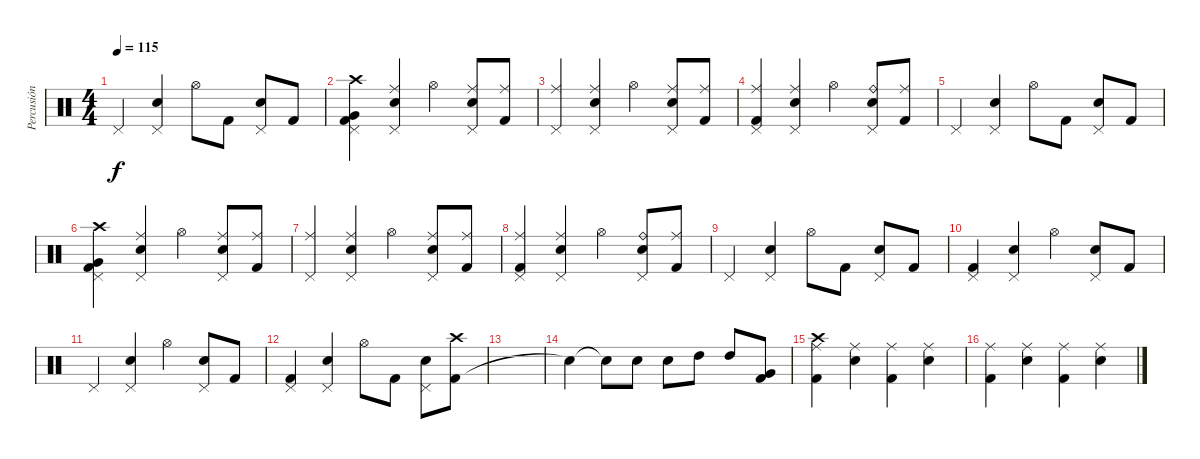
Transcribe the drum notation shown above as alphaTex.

\track ("Percusión" "Percusión") {instrument percussion}
\staff {score}
\articulation defaults
\ts (4 4)
\tempo 115
\clef neutral
\ks c "Pedal Hi-Hat (hit)".4{dy f}
("Snare (hit) 2" "Pedal Hi-Hat (hit)").4 "Hi-Hat (open)".8 "Kick (hit) 2".8 ("Snare (hit) 2" "Pedal Hi-Hat (hit)").8 "Kick (hit) 2".8 |
("Kick (hit) 2" "Very Low Tom (hit)" "Pedal Hi-Hat (hit)" "Crash high (hit)").4 ("Snare (hit) 2" "Pedal Hi-Hat (hit)" "Ride (middle)").4 "Hi-Hat (open)".4 ("Snare (hit) 2" "Pedal Hi-Hat (hit)" "Ride (middle)").8 ("Kick (hit) 2" "Ride (middle)").8 |
("Pedal Hi-Hat (hit)" "Ride (middle)").4 ("Snare (hit) 2" "Pedal Hi-Hat (hit)" "Ride (middle)").4 "Hi-Hat (open)".4 ("Snare (hit) 2" "Pedal Hi-Hat (hit)" "Ride (middle)").8 ("Kick (hit) 2" "Ride (middle)").8 |
("Kick (hit) 2" "Pedal Hi-Hat (hit)" "Ride (middle)").4 ("Snare (hit) 2" "Pedal Hi-Hat (hit)" "Ride (middle)").4 "Hi-Hat (open)".4 ("Snare (hit) 2" "Pedal Hi-Hat (hit)" "Ride (bell)").8 ("Kick (hit) 2" "Ride (middle)").8 |
"Pedal Hi-Hat (hit)".4 ("Snare (hit) 2" "Pedal Hi-Hat (hit)").4 "Hi-Hat (open)".8 "Kick (hit) 2".8 ("Snare (hit) 2" "Pedal Hi-Hat (hit)").8 "Kick (hit) 2".8 |
("Kick (hit) 2" "Very Low Tom (hit)" "Pedal Hi-Hat (hit)" "Crash high (hit)").4 ("Snare (hit) 2" "Pedal Hi-Hat (hit)" "Ride (middle)").4 "Hi-Hat (open)".4 ("Snare (hit) 2" "Pedal Hi-Hat (hit)" "Ride (middle)").8 ("Kick (hit) 2" "Ride (middle)").8 |
("Pedal Hi-Hat (hit)" "Ride (middle)").4 ("Snare (hit) 2" "Pedal Hi-Hat (hit)" "Ride (middle)").4 "Hi-Hat (open)".4 ("Snare (hit) 2" "Pedal Hi-Hat (hit)" "Ride (middle)").8 ("Kick (hit) 2" "Ride (middle)").8 |
("Kick (hit) 2" "Pedal Hi-Hat (hit)" "Ride (middle)").4 ("Snare (hit) 2" "Pedal Hi-Hat (hit)" "Ride (middle)").4 "Hi-Hat (open)".4 ("Snare (hit) 2" "Pedal Hi-Hat (hit)" "Ride (bell)").8 ("Kick (hit) 2" "Ride (middle)").8 |
"Pedal Hi-Hat (hit)".4 ("Snare (hit) 2" "Pedal Hi-Hat (hit)").4 "Hi-Hat (open)".8 "Kick (hit) 2".8 ("Snare (hit) 2" "Pedal Hi-Hat (hit)").8 "Kick (hit) 2".8 |
("Kick (hit) 2" "Pedal Hi-Hat (hit)").4 ("Snare (hit) 2" "Pedal Hi-Hat (hit)").4 "Hi-Hat (open)".4 ("Snare (hit) 2" "Pedal Hi-Hat (hit)").8 "Kick (hit) 2".8 |
"Pedal Hi-Hat (hit)".4 ("Snare (hit) 2" "Pedal Hi-Hat (hit)").4 "Hi-Hat (open)".4 ("Snare (hit) 2" "Pedal Hi-Hat (hit)").8 "Kick (hit) 2".8 |
("Kick (hit) 2" "Pedal Hi-Hat (hit)").4 ("Snare (hit) 2" "Pedal Hi-Hat (hit)").4 "Hi-Hat (open)".8 "Kick (hit) 2".8 ("Snare (hit) 2" "Pedal Hi-Hat (hit)").8 ("Kick (hit) 2" "Crash high (hit)").8 |
|
"Snare (hit)"{t}.4 "Snare (hit)"{t}.8 "Snare (hit) 2".8 "Snare (hit) 2".8 "High Tom (hit)".8 "High Tom (hit)".8 ("Very Low Tom (hit)" "Kick (hit) 2").8 |
("Kick (hit) 2" "Ride (middle)" "Crash high (hit)").4 ("Snare (hit) 2" "Ride (middle)").4 ("Kick (hit) 2" "Ride (middle)").4 ("Snare (hit) 2" "Ride (middle)").4 |
("Kick (hit) 2" "Ride (middle)").4 ("Snare (hit) 2" "Ride (middle)").4 ("Kick (hit) 2" "Ride (middle)").4 ("Snare (hit) 2" "Ride (middle)").4
